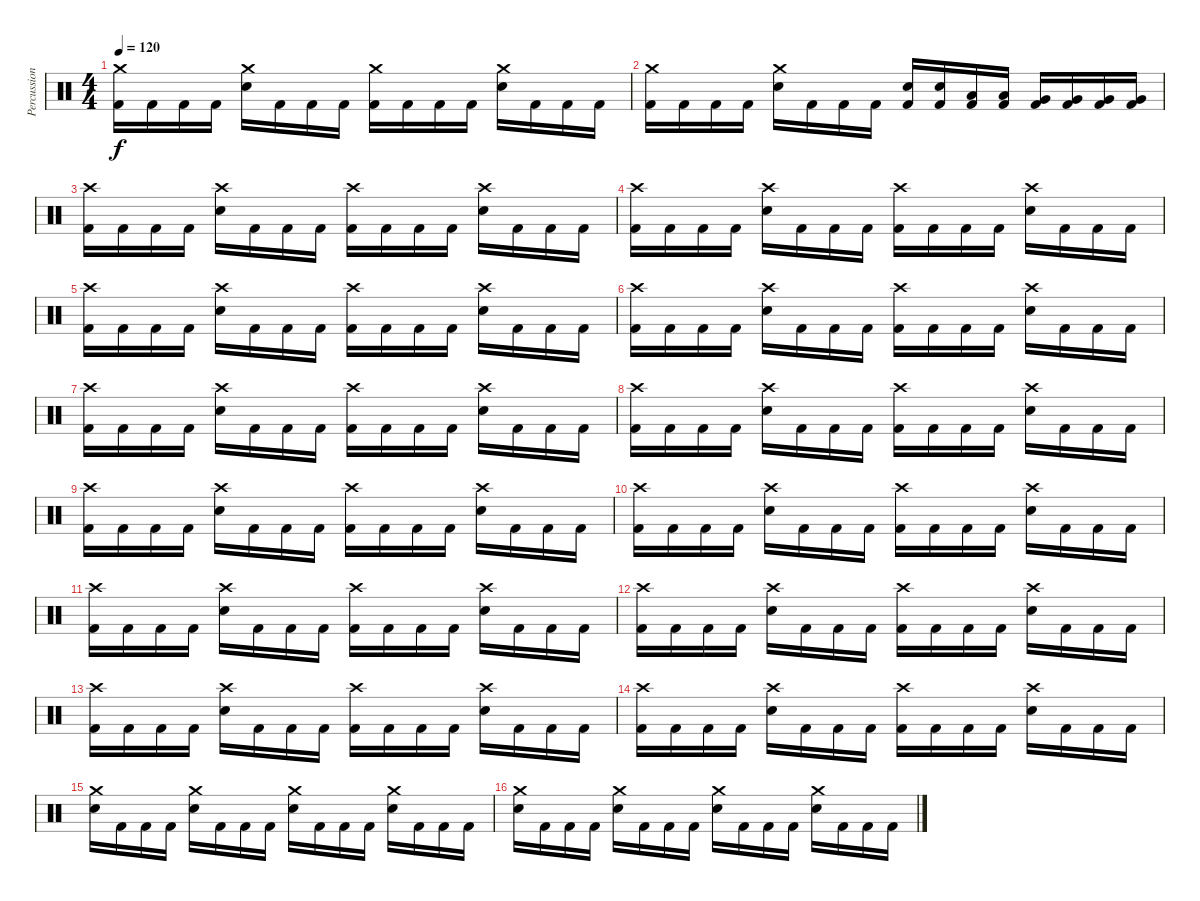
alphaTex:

\track ("Percussion" "Percussion") {instrument percussion}
\staff {score}
\articulation defaults
\ts (4 4)
\tempo 120
\clef neutral
\ks c
("Crash medium (hit)" "Kick (hit) 2").16{dy f} "Kick (hit) 2".16 "Kick (hit) 2".16 "Kick (hit) 2".16 ("Crash medium (hit)" "Electric Snare (hit)").16 "Kick (hit) 2".16 "Kick (hit) 2".16 "Kick (hit) 2".16 ("Crash medium (hit)" "Kick (hit) 2").16 "Kick (hit) 2".16 "Kick (hit) 2".16 "Kick (hit) 2".16 ("Crash medium (hit)" "Electric Snare (hit)").16 "Kick (hit) 2".16 "Kick (hit) 2".16 "Kick (hit) 2".16 |
("Crash medium (hit)" "Kick (hit) 2").16 "Kick (hit) 2".16 "Kick (hit) 2".16 "Kick (hit) 2".16 ("Crash medium (hit)" "Electric Snare (hit)").16 "Kick (hit) 2".16 "Kick (hit) 2".16 "Kick (hit) 2".16 ("Electric Snare (hit)" "Kick (hit) 2").16 ("Electric Snare (hit)" "Kick (hit) 2").16 ("Low Tom (hit)" "Kick (hit) 2").16 ("Low Tom (hit)" "Kick (hit) 2").16 ("Very Low Tom (hit)" "Kick (hit) 2").16 ("Very Low Tom (hit)" "Kick (hit) 2").16 ("Very Low Tom (hit)" "Kick (hit) 2").16 ("Very Low Tom (hit)" "Kick (hit) 2").16 |
("Crash high (hit)" "Kick (hit) 2").16 "Kick (hit) 2".16 "Kick (hit) 2".16 "Kick (hit) 2".16 ("Crash high (hit)" "Electric Snare (hit)").16 "Kick (hit) 2".16 "Kick (hit) 2".16 "Kick (hit) 2".16 ("Crash high (hit)" "Kick (hit) 2").16 "Kick (hit) 2".16 "Kick (hit) 2".16 "Kick (hit) 2".16 ("Crash high (hit)" "Electric Snare (hit)").16 "Kick (hit) 2".16 "Kick (hit) 2".16 "Kick (hit) 2".16 |
("Crash high (hit)" "Kick (hit) 2").16 "Kick (hit) 2".16 "Kick (hit) 2".16 "Kick (hit) 2".16 ("Crash high (hit)" "Electric Snare (hit)").16 "Kick (hit) 2".16 "Kick (hit) 2".16 "Kick (hit) 2".16 ("Crash high (hit)" "Kick (hit) 2").16 "Kick (hit) 2".16 "Kick (hit) 2".16 "Kick (hit) 2".16 ("Crash high (hit)" "Electric Snare (hit)").16 "Kick (hit) 2".16 "Kick (hit) 2".16 "Kick (hit) 2".16 |
("Crash high (hit)" "Kick (hit) 2").16 "Kick (hit) 2".16 "Kick (hit) 2".16 "Kick (hit) 2".16 ("Crash high (hit)" "Electric Snare (hit)").16 "Kick (hit) 2".16 "Kick (hit) 2".16 "Kick (hit) 2".16 ("Crash high (hit)" "Kick (hit) 2").16 "Kick (hit) 2".16 "Kick (hit) 2".16 "Kick (hit) 2".16 ("Crash high (hit)" "Electric Snare (hit)").16 "Kick (hit) 2".16 "Kick (hit) 2".16 "Kick (hit) 2".16 |
("Crash high (hit)" "Kick (hit) 2").16 "Kick (hit) 2".16 "Kick (hit) 2".16 "Kick (hit) 2".16 ("Crash high (hit)" "Electric Snare (hit)").16 "Kick (hit) 2".16 "Kick (hit) 2".16 "Kick (hit) 2".16 ("Crash high (hit)" "Kick (hit) 2").16 "Kick (hit) 2".16 "Kick (hit) 2".16 "Kick (hit) 2".16 ("Crash high (hit)" "Electric Snare (hit)").16 "Kick (hit) 2".16 "Kick (hit) 2".16 "Kick (hit) 2".16 |
("Crash high (hit)" "Kick (hit) 2").16 "Kick (hit) 2".16 "Kick (hit) 2".16 "Kick (hit) 2".16 ("Crash high (hit)" "Electric Snare (hit)").16 "Kick (hit) 2".16 "Kick (hit) 2".16 "Kick (hit) 2".16 ("Crash high (hit)" "Kick (hit) 2").16 "Kick (hit) 2".16 "Kick (hit) 2".16 "Kick (hit) 2".16 ("Crash high (hit)" "Electric Snare (hit)").16 "Kick (hit) 2".16 "Kick (hit) 2".16 "Kick (hit) 2".16 |
("Crash high (hit)" "Kick (hit) 2").16 "Kick (hit) 2".16 "Kick (hit) 2".16 "Kick (hit) 2".16 ("Crash high (hit)" "Electric Snare (hit)").16 "Kick (hit) 2".16 "Kick (hit) 2".16 "Kick (hit) 2".16 ("Crash high (hit)" "Kick (hit) 2").16 "Kick (hit) 2".16 "Kick (hit) 2".16 "Kick (hit) 2".16 ("Crash high (hit)" "Electric Snare (hit)").16 "Kick (hit) 2".16 "Kick (hit) 2".16 "Kick (hit) 2".16 |
("Crash high (hit)" "Kick (hit) 2").16 "Kick (hit) 2".16 "Kick (hit) 2".16 "Kick (hit) 2".16 ("Crash high (hit)" "Electric Snare (hit)").16 "Kick (hit) 2".16 "Kick (hit) 2".16 "Kick (hit) 2".16 ("Crash high (hit)" "Kick (hit) 2").16 "Kick (hit) 2".16 "Kick (hit) 2".16 "Kick (hit) 2".16 ("Crash high (hit)" "Electric Snare (hit)").16 "Kick (hit) 2".16 "Kick (hit) 2".16 "Kick (hit) 2".16 |
("Crash high (hit)" "Kick (hit) 2").16 "Kick (hit) 2".16 "Kick (hit) 2".16 "Kick (hit) 2".16 ("Crash high (hit)" "Electric Snare (hit)").16 "Kick (hit) 2".16 "Kick (hit) 2".16 "Kick (hit) 2".16 ("Crash high (hit)" "Kick (hit) 2").16 "Kick (hit) 2".16 "Kick (hit) 2".16 "Kick (hit) 2".16 ("Crash high (hit)" "Electric Snare (hit)").16 "Kick (hit) 2".16 "Kick (hit) 2".16 "Kick (hit) 2".16 |
("Crash high (hit)" "Kick (hit) 2").16 "Kick (hit) 2".16 "Kick (hit) 2".16 "Kick (hit) 2".16 ("Crash high (hit)" "Electric Snare (hit)").16 "Kick (hit) 2".16 "Kick (hit) 2".16 "Kick (hit) 2".16 ("Crash high (hit)" "Kick (hit) 2").16 "Kick (hit) 2".16 "Kick (hit) 2".16 "Kick (hit) 2".16 ("Crash high (hit)" "Electric Snare (hit)").16 "Kick (hit) 2".16 "Kick (hit) 2".16 "Kick (hit) 2".16 |
("Crash high (hit)" "Kick (hit) 2").16 "Kick (hit) 2".16 "Kick (hit) 2".16 "Kick (hit) 2".16 ("Crash high (hit)" "Electric Snare (hit)").16 "Kick (hit) 2".16 "Kick (hit) 2".16 "Kick (hit) 2".16 ("Crash high (hit)" "Kick (hit) 2").16 "Kick (hit) 2".16 "Kick (hit) 2".16 "Kick (hit) 2".16 ("Crash high (hit)" "Electric Snare (hit)").16 "Kick (hit) 2".16 "Kick (hit) 2".16 "Kick (hit) 2".16 |
("Crash high (hit)" "Kick (hit) 2").16 "Kick (hit) 2".16 "Kick (hit) 2".16 "Kick (hit) 2".16 ("Crash high (hit)" "Electric Snare (hit)").16 "Kick (hit) 2".16 "Kick (hit) 2".16 "Kick (hit) 2".16 ("Crash high (hit)" "Kick (hit) 2").16 "Kick (hit) 2".16 "Kick (hit) 2".16 "Kick (hit) 2".16 ("Crash high (hit)" "Electric Snare (hit)").16 "Kick (hit) 2".16 "Kick (hit) 2".16 "Kick (hit) 2".16 |
("Crash high (hit)" "Kick (hit) 2").16 "Kick (hit) 2".16 "Kick (hit) 2".16 "Kick (hit) 2".16 ("Crash high (hit)" "Electric Snare (hit)").16 "Kick (hit) 2".16 "Kick (hit) 2".16 "Kick (hit) 2".16 ("Crash high (hit)" "Kick (hit) 2").16 "Kick (hit) 2".16 "Kick (hit) 2".16 "Kick (hit) 2".16 ("Crash high (hit)" "Electric Snare (hit)").16 "Kick (hit) 2".16 "Kick (hit) 2".16 "Kick (hit) 2".16 |
("Crash medium (hit)" "Electric Snare (hit)").16 "Kick (hit) 2".16 "Kick (hit) 2".16 "Kick (hit) 2".16 ("Crash medium (hit)" "Electric Snare (hit)").16 "Kick (hit) 2".16 "Kick (hit) 2".16 "Kick (hit) 2".16 ("Crash medium (hit)" "Electric Snare (hit)").16 "Kick (hit) 2".16 "Kick (hit) 2".16 "Kick (hit) 2".16 ("Crash medium (hit)" "Electric Snare (hit)").16 "Kick (hit) 2".16 "Kick (hit) 2".16 "Kick (hit) 2".16 |
("Crash medium (hit)" "Electric Snare (hit)").16 "Kick (hit) 2".16 "Kick (hit) 2".16 "Kick (hit) 2".16 ("Crash medium (hit)" "Electric Snare (hit)").16 "Kick (hit) 2".16 "Kick (hit) 2".16 "Kick (hit) 2".16 ("Crash medium (hit)" "Electric Snare (hit)").16 "Kick (hit) 2".16 "Kick (hit) 2".16 "Kick (hit) 2".16 ("Crash medium (hit)" "Electric Snare (hit)").16 "Kick (hit) 2".16 "Kick (hit) 2".16 "Kick (hit) 2".16
